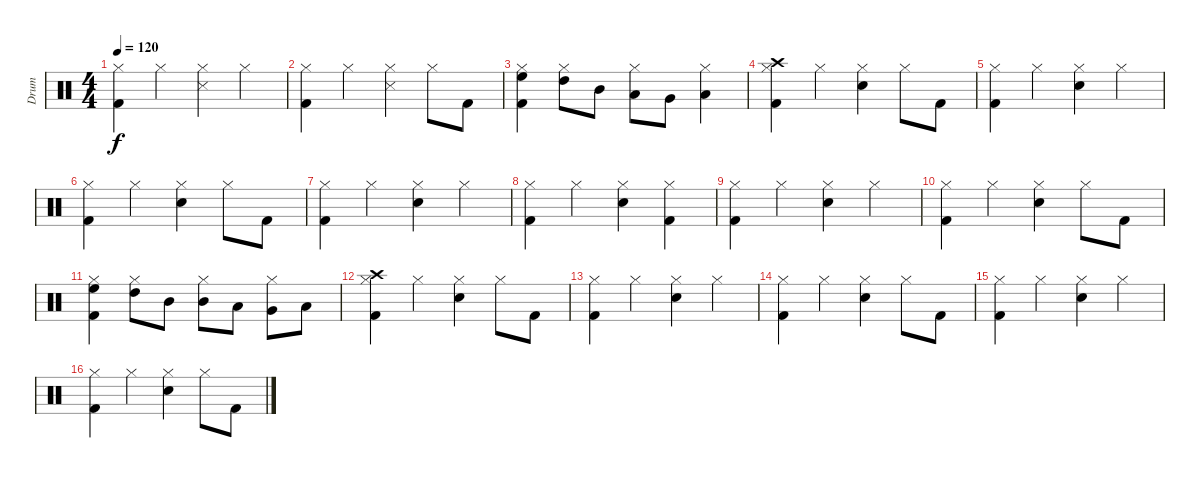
\track ("Drum" "Drum") {instrument percussion}
\staff {score}
\articulation defaults
\ts (4 4)
\tempo 120
\clef neutral
\ks c
("Hi-Hat (closed)" "Kick (hit) 2").4{dy f} "Hi-Hat (closed)".4 ("Hi-Hat (closed)" "Snare (side stick) 3").4 "Hi-Hat (closed)".4 |
("Hi-Hat (closed)" "Kick (hit) 2").4 "Hi-Hat (closed)".4 ("Hi-Hat (closed)" "Snare (side stick) 3").4 "Hi-Hat (closed)".8 "Kick (hit) 2".8 |
("Hi-Hat (closed)" "High Floor Tom (hit)" "Kick (hit) 2").4 ("Hi-Hat (closed)" "High Tom (hit)").8 "Mid Tom (hit)".8 ("Hi-Hat (closed)" "Low Tom (hit)").8 "Very Low Tom (hit)".8 ("Hi-Hat (closed)" "Low Floor Tom (hit)").4 |
("Hi-Hat (closed)" "Crash high (hit)" "Kick (hit) 2").4 "Hi-Hat (closed)".4 ("Hi-Hat (closed)" "Electric Snare (hit)").4 "Hi-Hat (closed)".8 "Kick (hit) 2".8 |
("Hi-Hat (closed)" "Kick (hit) 2").4 "Hi-Hat (closed)".4 ("Hi-Hat (closed)" "Electric Snare (hit)").4 "Hi-Hat (closed)".4 |
("Hi-Hat (closed)" "Kick (hit) 2").4 "Hi-Hat (closed)".4 ("Hi-Hat (closed)" "Electric Snare (hit)").4 "Hi-Hat (closed)".8 "Kick (hit) 2".8 |
("Hi-Hat (closed)" "Kick (hit) 2").4 "Hi-Hat (closed)".4 ("Hi-Hat (closed)" "Electric Snare (hit)").4 "Hi-Hat (closed)".4 |
("Hi-Hat (closed)" "Kick (hit) 2").4 "Hi-Hat (closed)".4 ("Hi-Hat (closed)" "Electric Snare (hit)").4 ("Hi-Hat (closed)" "Kick (hit) 2").4 |
("Hi-Hat (closed)" "Kick (hit) 2").4 "Hi-Hat (closed)".4 ("Hi-Hat (closed)" "Electric Snare (hit)").4 "Hi-Hat (closed)".4 |
("Hi-Hat (closed)" "Kick (hit) 2").4 "Hi-Hat (closed)".4 ("Hi-Hat (closed)" "Electric Snare (hit)").4 "Hi-Hat (closed)".8 "Kick (hit) 2".8 |
("Hi-Hat (closed)" "High Floor Tom (hit)" "Kick (hit) 2").4 ("Hi-Hat (closed)" "High Tom (hit)").8 "Mid Tom (hit)".8 ("Hi-Hat (closed)" "Mid Tom (hit)").8 "Low Tom (hit)".8 ("Hi-Hat (closed)" "Very Low Tom (hit)").8 "Low Floor Tom (hit)".8 |
("Hi-Hat (closed)" "Crash high (hit)" "Kick (hit) 2").4 "Hi-Hat (closed)".4 ("Hi-Hat (closed)" "Electric Snare (hit)").4 "Hi-Hat (closed)".8 "Kick (hit) 2".8 |
("Hi-Hat (closed)" "Kick (hit) 2").4 "Hi-Hat (closed)".4 ("Hi-Hat (closed)" "Electric Snare (hit)").4 "Hi-Hat (closed)".4 |
("Hi-Hat (closed)" "Kick (hit) 2").4 "Hi-Hat (closed)".4 ("Hi-Hat (closed)" "Electric Snare (hit)").4 "Hi-Hat (closed)".8 "Kick (hit) 2".8 |
("Hi-Hat (closed)" "Kick (hit) 2").4 "Hi-Hat (closed)".4 ("Hi-Hat (closed)" "Electric Snare (hit)").4 "Hi-Hat (closed)".4 |
("Hi-Hat (closed)" "Kick (hit) 2").4 "Hi-Hat (closed)".4 ("Hi-Hat (closed)" "Electric Snare (hit)").4 "Hi-Hat (closed)".8 "Kick (hit) 2".8
